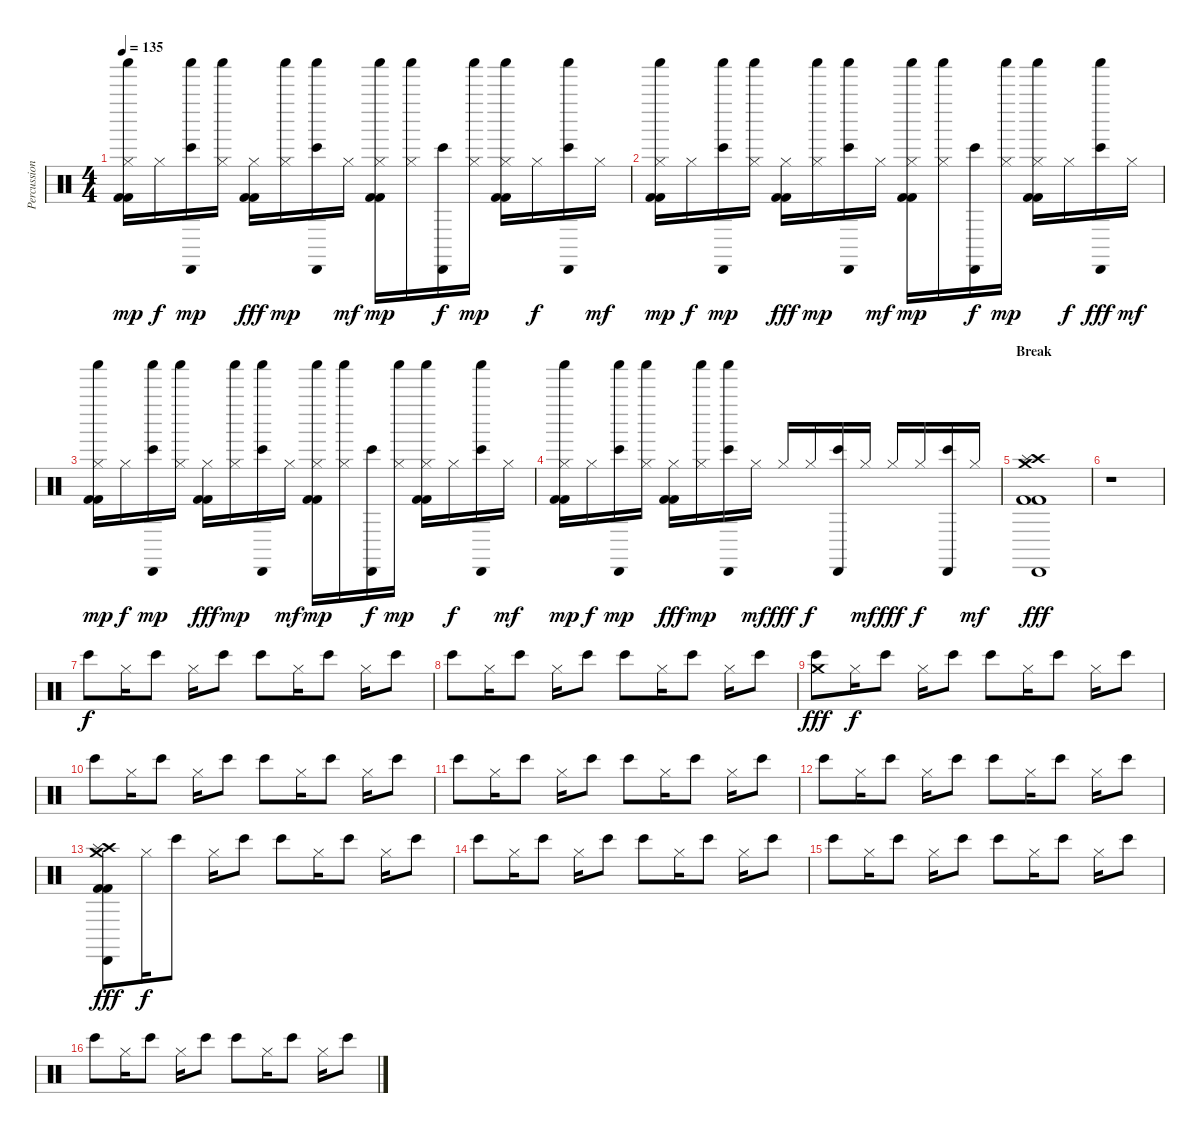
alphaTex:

\track ("Percussion" "Percussion") {instrument percussion}
\staff {score}
\articulation defaults
\ts (4 4)
\tempo 135
\clef neutral
\ks c
("Hi-Hat (closed)" "Kick (hit) 2" "Kick (hit) 2" "Shaker (hit)").16{dy mp} "Hi-Hat (closed)".16{dy f} ("Cabasa (hit)" "Bongo High (hit)" "Shaker (hit)").16{dy mp} ("Hi-Hat (closed)" "Shaker (hit)").16 ("Hi-Hat (closed)" "Kick (hit) 2" "Kick (hit) 2").16{dy fff} ("Hi-Hat (closed)" "Shaker (hit)").16{dy mp} ("Cabasa (hit)" "Bongo High (hit)" "Shaker (hit)").16 "Hi-Hat (closed)".16{dy mf} ("Hi-Hat (closed)" "Kick (hit) 2" "Kick (hit) 2" "Shaker (hit)").16{dy mp} ("Hi-Hat (closed)" "Shaker (hit)").16 ("Cabasa (hit)" "Bongo High (hit)").16{dy f} ("Hi-Hat (closed)" "Shaker (hit)").16{dy mp} ("Hi-Hat (closed)" "Kick (hit) 2" "Kick (hit) 2" "Shaker (hit)").16 "Hi-Hat (closed)".16{dy f} ("Cabasa (hit)" "Bongo High (hit)" "Shaker (hit)").16 "Hi-Hat (closed)".16{dy mf} |
("Hi-Hat (closed)" "Kick (hit) 2" "Kick (hit) 2" "Shaker (hit)").16{dy mp} "Hi-Hat (closed)".16{dy f} ("Cabasa (hit)" "Bongo High (hit)" "Shaker (hit)").16{dy mp} ("Hi-Hat (closed)" "Shaker (hit)").16 ("Hi-Hat (closed)" "Kick (hit) 2" "Kick (hit) 2").16{dy fff} ("Hi-Hat (closed)" "Shaker (hit)").16{dy mp} ("Cabasa (hit)" "Bongo High (hit)" "Shaker (hit)").16 "Hi-Hat (closed)".16{dy mf} ("Hi-Hat (closed)" "Kick (hit) 2" "Kick (hit) 2" "Shaker (hit)").16{dy mp} ("Hi-Hat (closed)" "Shaker (hit)").16 ("Cabasa (hit)" "Bongo High (hit)").16{dy f} ("Hi-Hat (closed)" "Shaker (hit)").16{dy mp} ("Hi-Hat (closed)" "Kick (hit) 2" "Kick (hit) 2" "Shaker (hit)").16 "Hi-Hat (closed)".16{dy f} ("Cabasa (hit)" "Bongo High (hit)" "Shaker (hit)").16{dy fff} "Hi-Hat (closed)".16{dy mf} |
("Hi-Hat (closed)" "Kick (hit) 2" "Kick (hit) 2" "Shaker (hit)").16{dy mp} "Hi-Hat (closed)".16{dy f} ("Cabasa (hit)" "Bongo High (hit)" "Shaker (hit)").16{dy mp} ("Hi-Hat (closed)" "Shaker (hit)").16 ("Hi-Hat (closed)" "Kick (hit) 2" "Kick (hit) 2").16{dy fff} ("Hi-Hat (closed)" "Shaker (hit)").16{dy mp} ("Cabasa (hit)" "Bongo High (hit)" "Shaker (hit)").16 "Hi-Hat (closed)".16{dy mf} ("Hi-Hat (closed)" "Kick (hit) 2" "Kick (hit) 2" "Shaker (hit)").16{dy mp} ("Hi-Hat (closed)" "Shaker (hit)").16 ("Cabasa (hit)" "Bongo High (hit)").16{dy f} ("Hi-Hat (closed)" "Shaker (hit)").16{dy mp} ("Hi-Hat (closed)" "Kick (hit) 2" "Kick (hit) 2" "Shaker (hit)").16 "Hi-Hat (closed)".16{dy f} ("Cabasa (hit)" "Bongo High (hit)" "Shaker (hit)").16 "Hi-Hat (closed)".16{dy mf} |
("Hi-Hat (closed)" "Kick (hit) 2" "Kick (hit) 2" "Shaker (hit)").16{dy mp} "Hi-Hat (closed)".16{dy f} ("Cabasa (hit)" "Bongo High (hit)" "Shaker (hit)").16{dy mp} ("Hi-Hat (closed)" "Shaker (hit)").16 ("Hi-Hat (closed)" "Kick (hit) 2" "Kick (hit) 2").16{dy fff} ("Hi-Hat (closed)" "Shaker (hit)").16{dy mp} ("Cabasa (hit)" "Bongo High (hit)" "Shaker (hit)").16 "Hi-Hat (closed)".16{dy mf} "Hi-Hat (closed)".16{dy fff} "Hi-Hat (closed)".16{dy f} ("Cabasa (hit)" "Bongo High (hit)").16 "Hi-Hat (closed)".16{dy mf} "Hi-Hat (closed)".16{dy fff} "Hi-Hat (closed)".16{dy f} ("Cabasa (hit)" "Bongo High (hit)").16 "Hi-Hat (closed)".16{dy mf} |
\section ("" "Break")
("Crash high (hit)" "Crash medium (hit)" "Cabasa (hit)" "Kick (hit) 2" "Kick (hit) 2" "Splash (hit)").1{dy fff} |
r.1 |
"Bongo High (hit)".8{dy f} "Hi-Hat (closed)".16 "Bongo High (hit)".8 "Hi-Hat (closed)".16 "Bongo High (hit)".8 "Bongo High (hit)".8 "Hi-Hat (closed)".16 "Bongo High (hit)".8 "Hi-Hat (closed)".16 "Bongo High (hit)".8 |
"Bongo High (hit)".8 "Hi-Hat (closed)".16 "Bongo High (hit)".8 "Hi-Hat (closed)".16 "Bongo High (hit)".8 "Bongo High (hit)".8 "Hi-Hat (closed)".16 "Bongo High (hit)".8 "Hi-Hat (closed)".16 "Bongo High (hit)".8 |
("Crash medium (hit)" "Bongo High (hit)").8{dy fff} "Hi-Hat (closed)".16{dy f} "Bongo High (hit)".8 "Hi-Hat (closed)".16 "Bongo High (hit)".8 "Bongo High (hit)".8 "Hi-Hat (closed)".16 "Bongo High (hit)".8 "Hi-Hat (closed)".16 "Bongo High (hit)".8 |
"Bongo High (hit)".8 "Hi-Hat (closed)".16 "Bongo High (hit)".8 "Hi-Hat (closed)".16 "Bongo High (hit)".8 "Bongo High (hit)".8 "Hi-Hat (closed)".16 "Bongo High (hit)".8 "Hi-Hat (closed)".16 "Bongo High (hit)".8 |
"Bongo High (hit)".8 "Hi-Hat (closed)".16 "Bongo High (hit)".8 "Hi-Hat (closed)".16 "Bongo High (hit)".8 "Bongo High (hit)".8 "Hi-Hat (closed)".16 "Bongo High (hit)".8 "Hi-Hat (closed)".16 "Bongo High (hit)".8 |
"Bongo High (hit)".8 "Hi-Hat (closed)".16 "Bongo High (hit)".8 "Hi-Hat (closed)".16 "Bongo High (hit)".8 "Bongo High (hit)".8 "Hi-Hat (closed)".16 "Bongo High (hit)".8 "Hi-Hat (closed)".16 "Bongo High (hit)".8 |
("Crash high (hit)" "Cabasa (hit)" "Crash medium (hit)" "Kick (hit) 2" "Kick (hit) 2" "Splash (hit)").8{dy fff} "Hi-Hat (closed)".16{dy f} "Bongo High (hit)".8 "Hi-Hat (closed)".16 "Bongo High (hit)".8 "Bongo High (hit)".8 "Hi-Hat (closed)".16 "Bongo High (hit)".8 "Hi-Hat (closed)".16 "Bongo High (hit)".8 |
"Bongo High (hit)".8 "Hi-Hat (closed)".16 "Bongo High (hit)".8 "Hi-Hat (closed)".16 "Bongo High (hit)".8 "Bongo High (hit)".8 "Hi-Hat (closed)".16 "Bongo High (hit)".8 "Hi-Hat (closed)".16 "Bongo High (hit)".8 |
"Bongo High (hit)".8 "Hi-Hat (closed)".16 "Bongo High (hit)".8 "Hi-Hat (closed)".16 "Bongo High (hit)".8 "Bongo High (hit)".8 "Hi-Hat (closed)".16 "Bongo High (hit)".8 "Hi-Hat (closed)".16 "Bongo High (hit)".8 |
"Bongo High (hit)".8 "Hi-Hat (closed)".16 "Bongo High (hit)".8 "Hi-Hat (closed)".16 "Bongo High (hit)".8 "Bongo High (hit)".8 "Hi-Hat (closed)".16 "Bongo High (hit)".8 "Hi-Hat (closed)".16 "Bongo High (hit)".8
